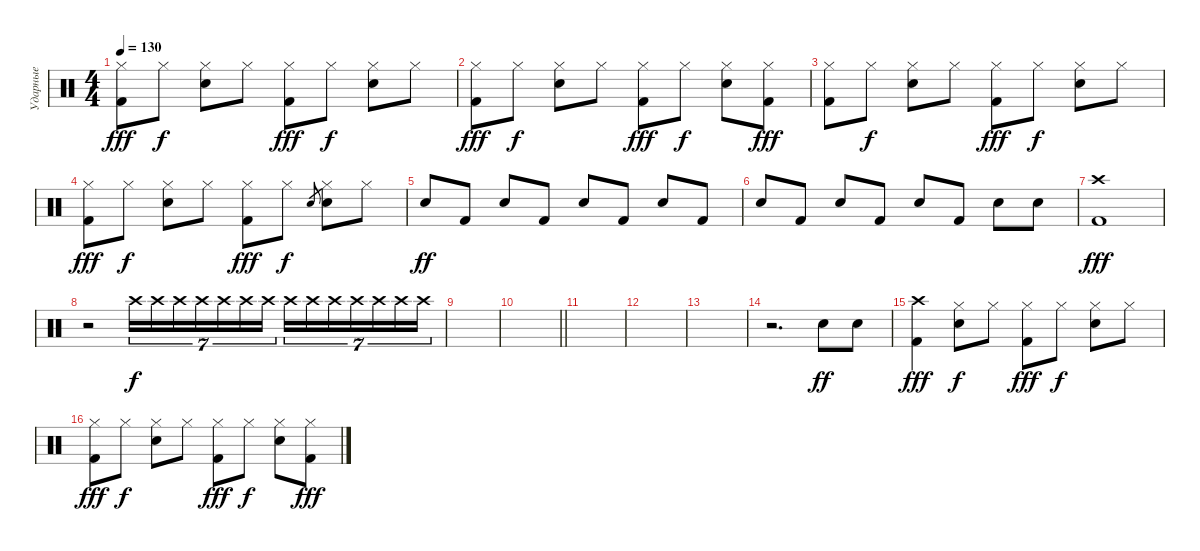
\track ("Ударные" "Ударные") {instrument percussion}
\staff {score}
\articulation defaults
\ts (4 4)
\tempo 130
\clef neutral
\ks c
("Kick (hit) 2" "Hi-Hat (closed)").8{dy fff} "Hi-Hat (closed)".8{dy f} ("Snare (hit) 2" "Hi-Hat (closed)").8 "Hi-Hat (closed)".8 ("Kick (hit) 2" "Hi-Hat (closed)").8{dy fff} "Hi-Hat (closed)".8{dy f} ("Snare (hit) 2" "Hi-Hat (closed)").8 "Hi-Hat (closed)".8 |
("Kick (hit) 2" "Hi-Hat (closed)").8{dy fff} "Hi-Hat (closed)".8{dy f} ("Snare (hit) 2" "Hi-Hat (closed)").8 "Hi-Hat (closed)".8 ("Kick (hit) 2" "Hi-Hat (closed)").8{dy fff} "Hi-Hat (closed)".8{dy f} ("Snare (hit) 2" "Hi-Hat (closed)").8 ("Kick (hit) 2" "Hi-Hat (closed)").8{dy fff} |
("Kick (hit) 2" "Hi-Hat (closed)").8 "Hi-Hat (closed)".8{dy f} ("Snare (hit) 2" "Hi-Hat (closed)").8 "Hi-Hat (closed)".8 ("Kick (hit) 2" "Hi-Hat (closed)").8{dy fff} "Hi-Hat (closed)".8{dy f} ("Snare (hit) 2" "Hi-Hat (closed)").8 "Hi-Hat (closed)".8 |
("Kick (hit) 2" "Hi-Hat (closed)").8{dy fff} "Hi-Hat (closed)".8{dy f} ("Snare (hit) 2" "Hi-Hat (closed)").8 "Hi-Hat (closed)".8 ("Kick (hit) 2" "Hi-Hat (closed)").8{dy fff} "Hi-Hat (closed)".8{dy f} "Snare (hit) 2".8{gr} ("Snare (hit) 2" "Hi-Hat (closed)").8 "Hi-Hat (closed)".8 |
"Snare (hit) 2".8{dy ff} "Kick (hit) 2".8 "Snare (hit) 2".8 "Kick (hit) 2".8 "Snare (hit) 2".8 "Kick (hit) 2".8 "Snare (hit) 2".8 "Kick (hit) 2".8 |
"Snare (hit) 2".8 "Kick (hit) 2".8 "Snare (hit) 2".8 "Kick (hit) 2".8 "Snare (hit) 2".8 "Kick (hit) 2".8 "Snare (hit) 2".8 "Snare (hit) 2".8 |
("Kick (hit) 2" "Crash high (hit)").1{dy fff} |
r.2 "Crash high (hit)".16{tu (7 4) dy f} "Crash high (hit)".16{tu (7 4)} "Crash high (hit)".16{tu (7 4)} "Crash high (hit)".16{tu (7 4)} "Crash high (hit)".16{tu (7 4)} "Crash high (hit)".16{tu (7 4)} "Crash high (hit)".16{tu (7 4)} "Crash high (hit)".16{tu (7 4)} "Crash high (hit)".16{tu (7 4)} "Crash high (hit)".16{tu (7 4)} "Crash high (hit)".16{tu (7 4)} "Crash high (hit)".16{tu (7 4)} "Crash high (hit)".16{tu (7 4)} "Crash high (hit)".16{tu (7 4)} |
|
\barLineRight lightlight
|
|
|
|
r.2{d} "Snare (hit) 2".8{dy ff} "Snare (hit) 2".8 |
("Kick (hit) 2" "Crash high (hit)").4{dy fff} ("Snare (hit) 2" "Hi-Hat (closed)").8{dy f} "Hi-Hat (closed)".8 ("Kick (hit) 2" "Hi-Hat (closed)").8{dy fff} "Hi-Hat (closed)".8{dy f} ("Snare (hit) 2" "Hi-Hat (closed)").8 "Hi-Hat (closed)".8 |
("Kick (hit) 2" "Hi-Hat (closed)").8{dy fff} "Hi-Hat (closed)".8{dy f} ("Snare (hit) 2" "Hi-Hat (closed)").8 "Hi-Hat (closed)".8 ("Kick (hit) 2" "Hi-Hat (closed)").8{dy fff} "Hi-Hat (closed)".8{dy f} ("Snare (hit) 2" "Hi-Hat (closed)").8 ("Kick (hit) 2" "Hi-Hat (closed)").8{dy fff}
